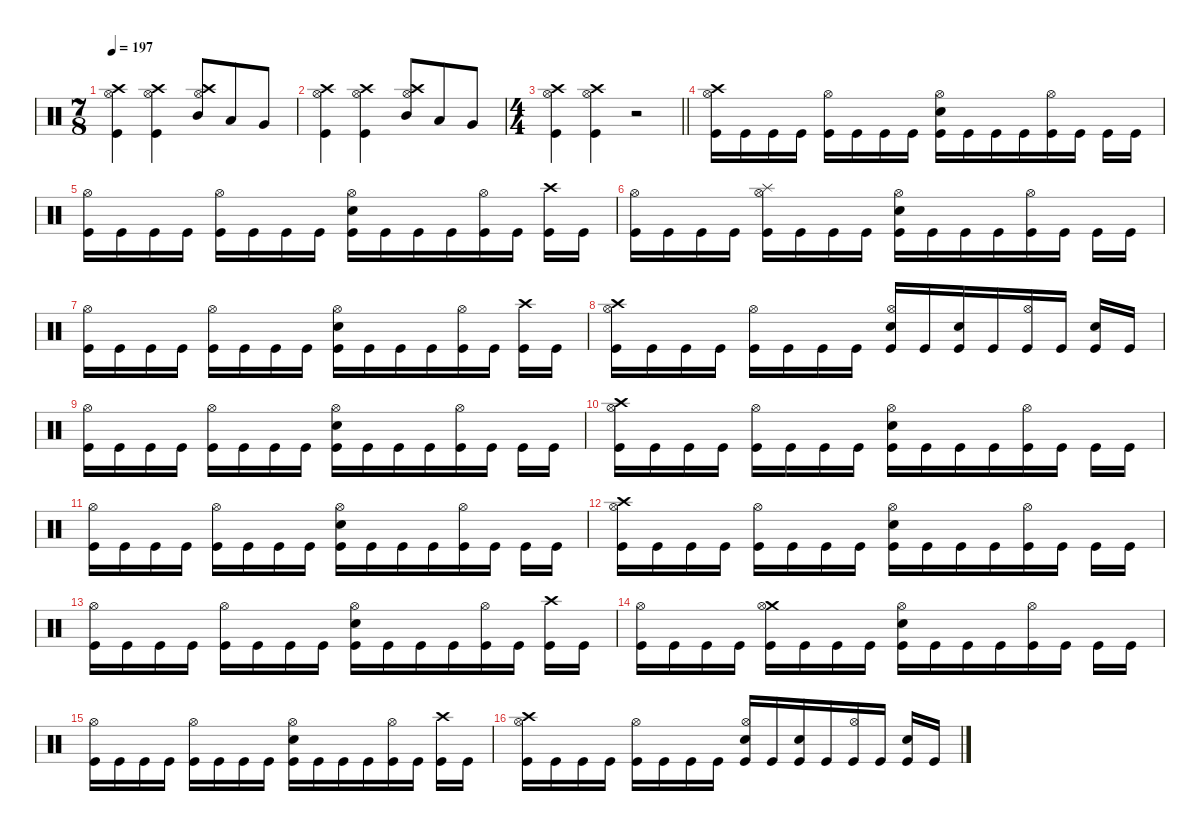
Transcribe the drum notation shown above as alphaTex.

\defaultSystemsLayout 4
\hideDynamics
\bracketExtendMode nobrackets
\singleTrackTrackNamePolicy hidden
\multiTrackTrackNamePolicy hidden
\firstSystemTrackNameMode fullname
\firstSystemTrackNameOrientation horizontal
\otherSystemsTrackNameOrientation horizontal
\track ("Drums" "drm.") {defaultSystemsLayout 4 instrument percussion}
\staff {score}
\articulation defaults
\ts (7 8)
\tempo 197
\clef neutral
\ks c
("Crash high (hit)" "Hi-Hat (open)" "Kick (hit)").4{dy f beam Down} ("Crash high (hit)" "Hi-Hat (open)" "Kick (hit)").4{beam Down} ("Crash high (hit)" "Hi-Hat (open)" "Mid Tom (hit)").8{beam Up} "Low Tom (hit)".8{beam Up} "Very Low Tom (hit)".8{beam Up} |
("Crash high (hit)" "Hi-Hat (open)" "Kick (hit)").4{beam Down} ("Crash high (hit)" "Hi-Hat (open)" "Kick (hit)").4{beam Down} ("Crash high (hit)" "Hi-Hat (open)" "Mid Tom (hit)").8{beam Up} "Low Tom (hit)".8{beam Up} "Very Low Tom (hit)".8{beam Up} |
\ts (4 4)
\beaming (8 2 2 3)
\barLineRight lightlight
("Crash high (hit)" "Hi-Hat (open)" "Kick (hit)").4{beam Down} ("Crash high (hit)" "Hi-Hat (open)" "Kick (hit)").4{beam Down} r.2{beam Down} |
("Crash high (hit)" "Hi-Hat (open)" "Kick (hit)").16{beam Down} "Kick (hit)".16{beam Down} "Kick (hit)".16{beam Down} "Kick (hit)".16{beam Down} ("Hi-Hat (open)" "Kick (hit)").16{beam Down} "Kick (hit)".16{beam Down} "Kick (hit)".16{beam Down} "Kick (hit)".16{beam Down} ("Hi-Hat (open)" "Snare (hit) 2" "Kick (hit)").16{beam Down} "Kick (hit)".16{beam Down} "Kick (hit)".16{beam Down} "Kick (hit)".16{beam Down} ("Hi-Hat (open)" "Kick (hit)").16{beam Down} "Kick (hit)".16{beam Down} "Kick (hit)".16{beam Down} "Kick (hit)".16{beam Down} |
("Hi-Hat (open)" "Kick (hit)").16{beam Down} "Kick (hit)".16{beam Down} "Kick (hit)".16{beam Down} "Kick (hit)".16{beam Down} ("Hi-Hat (open)" "Kick (hit)").16{beam Down} "Kick (hit)".16{beam Down} "Kick (hit)".16{beam Down} "Kick (hit)".16{beam Down} ("Hi-Hat (open)" "Snare (hit) 2" "Kick (hit)").16{beam Down} "Kick (hit)".16{beam Down} "Kick (hit)".16{beam Down} "Kick (hit)".16{beam Down} ("Hi-Hat (open)" "Kick (hit)").16{beam Down} "Kick (hit)".16{beam Down} ("Crash high (hit)" "Kick (hit)").16{beam Down} "Kick (hit)".16{beam Down} |
("Hi-Hat (open)" "Kick (hit)").16{beam Down} "Kick (hit)".16{beam Down} "Kick (hit)".16{beam Down} "Kick (hit)".16{beam Down} ("Splash (hit)" "Hi-Hat (open)" "Kick (hit)").16{beam Down} "Kick (hit)".16{beam Down} "Kick (hit)".16{beam Down} "Kick (hit)".16{beam Down} ("Hi-Hat (open)" "Snare (hit) 2" "Kick (hit)").16{beam Down} "Kick (hit)".16{beam Down} "Kick (hit)".16{beam Down} "Kick (hit)".16{beam Down} ("Hi-Hat (open)" "Kick (hit)").16{beam Down} "Kick (hit)".16{beam Down} "Kick (hit)".16{beam Down} "Kick (hit)".16{beam Down} |
("Hi-Hat (open)" "Kick (hit)").16{beam Down} "Kick (hit)".16{beam Down} "Kick (hit)".16{beam Down} "Kick (hit)".16{beam Down} ("Hi-Hat (open)" "Kick (hit)").16{beam Down} "Kick (hit)".16{beam Down} "Kick (hit)".16{beam Down} "Kick (hit)".16{beam Down} ("Hi-Hat (open)" "Snare (hit) 2" "Kick (hit)").16{beam Down} "Kick (hit)".16{beam Down} "Kick (hit)".16{beam Down} "Kick (hit)".16{beam Down} ("Hi-Hat (open)" "Kick (hit)").16{beam Down} "Kick (hit)".16{beam Down} ("Crash high (hit)" "Kick (hit)").16{beam Down} "Kick (hit)".16{beam Down} |
("Crash high (hit)" "Hi-Hat (open)" "Kick (hit)").16{beam Down} "Kick (hit)".16{beam Down} "Kick (hit)".16{beam Down} "Kick (hit)".16{beam Down} ("Hi-Hat (open)" "Kick (hit)").16{beam Down} "Kick (hit)".16{beam Down} "Kick (hit)".16{beam Down} "Kick (hit)".16{beam Down} ("Hi-Hat (open)" "Snare (hit) 2" "Kick (hit)").16{beam Up} "Kick (hit)".16{beam Up} ("Snare (hit) 2" "Kick (hit)").16{beam Up} "Kick (hit)".16{beam Up} ("Hi-Hat (open)" "Kick (hit)").16{beam Up} "Kick (hit)".16{beam Up} ("Snare (hit) 2" "Kick (hit)").16{beam Up} "Kick (hit)".16{beam Up} |
("Hi-Hat (open)" "Kick (hit)").16{beam Down} "Kick (hit)".16{beam Down} "Kick (hit)".16{beam Down} "Kick (hit)".16{beam Down} ("Hi-Hat (open)" "Kick (hit)").16{beam Down} "Kick (hit)".16{beam Down} "Kick (hit)".16{beam Down} "Kick (hit)".16{beam Down} ("Hi-Hat (open)" "Snare (hit) 2" "Kick (hit)").16{beam Down} "Kick (hit)".16{beam Down} "Kick (hit)".16{beam Down} "Kick (hit)".16{beam Down} ("Hi-Hat (open)" "Kick (hit)").16{beam Down} "Kick (hit)".16{beam Down} "Kick (hit)".16{beam Down} "Kick (hit)".16{beam Down} |
("Crash high (hit)" "Hi-Hat (open)" "Kick (hit)").16{beam Down} "Kick (hit)".16{beam Down} "Kick (hit)".16{beam Down} "Kick (hit)".16{beam Down} ("Hi-Hat (open)" "Kick (hit)").16{beam Down} "Kick (hit)".16{beam Down} "Kick (hit)".16{beam Down} "Kick (hit)".16{beam Down} ("Hi-Hat (open)" "Snare (hit) 2" "Kick (hit)").16{beam Down} "Kick (hit)".16{beam Down} "Kick (hit)".16{beam Down} "Kick (hit)".16{beam Down} ("Hi-Hat (open)" "Kick (hit)").16{beam Down} "Kick (hit)".16{beam Down} "Kick (hit)".16{beam Down} "Kick (hit)".16{beam Down} |
("Hi-Hat (open)" "Kick (hit)").16{beam Down} "Kick (hit)".16{beam Down} "Kick (hit)".16{beam Down} "Kick (hit)".16{beam Down} ("Hi-Hat (open)" "Kick (hit)").16{beam Down} "Kick (hit)".16{beam Down} "Kick (hit)".16{beam Down} "Kick (hit)".16{beam Down} ("Hi-Hat (open)" "Snare (hit) 2" "Kick (hit)").16{beam Down} "Kick (hit)".16{beam Down} "Kick (hit)".16{beam Down} "Kick (hit)".16{beam Down} ("Hi-Hat (open)" "Kick (hit)").16{beam Down} "Kick (hit)".16{beam Down} "Kick (hit)".16{beam Down} "Kick (hit)".16{beam Down} |
("Crash high (hit)" "Hi-Hat (open)" "Kick (hit)").16{beam Down} "Kick (hit)".16{beam Down} "Kick (hit)".16{beam Down} "Kick (hit)".16{beam Down} ("Hi-Hat (open)" "Kick (hit)").16{beam Down} "Kick (hit)".16{beam Down} "Kick (hit)".16{beam Down} "Kick (hit)".16{beam Down} ("Hi-Hat (open)" "Snare (hit) 2" "Kick (hit)").16{beam Down} "Kick (hit)".16{beam Down} "Kick (hit)".16{beam Down} "Kick (hit)".16{beam Down} ("Hi-Hat (open)" "Kick (hit)").16{beam Down} "Kick (hit)".16{beam Down} "Kick (hit)".16{beam Down} "Kick (hit)".16{beam Down} |
("Hi-Hat (open)" "Kick (hit)").16{beam Down} "Kick (hit)".16{beam Down} "Kick (hit)".16{beam Down} "Kick (hit)".16{beam Down} ("Hi-Hat (open)" "Kick (hit)").16{beam Down} "Kick (hit)".16{beam Down} "Kick (hit)".16{beam Down} "Kick (hit)".16{beam Down} ("Hi-Hat (open)" "Snare (hit) 2" "Kick (hit)").16{beam Down} "Kick (hit)".16{beam Down} "Kick (hit)".16{beam Down} "Kick (hit)".16{beam Down} ("Hi-Hat (open)" "Kick (hit)").16{beam Down} "Kick (hit)".16{beam Down} ("Crash high (hit)" "Kick (hit)").16{beam Down} "Kick (hit)".16{beam Down} |
("Hi-Hat (open)" "Kick (hit)").16{beam Down} "Kick (hit)".16{beam Down} "Kick (hit)".16{beam Down} "Kick (hit)".16{beam Down} ("Crash medium (hit)" "Hi-Hat (open)" "Kick (hit)").16{beam Down} "Kick (hit)".16{beam Down} "Kick (hit)".16{beam Down} "Kick (hit)".16{beam Down} ("Hi-Hat (open)" "Snare (hit) 2" "Kick (hit)").16{beam Down} "Kick (hit)".16{beam Down} "Kick (hit)".16{beam Down} "Kick (hit)".16{beam Down} ("Hi-Hat (open)" "Kick (hit)").16{beam Down} "Kick (hit)".16{beam Down} "Kick (hit)".16{beam Down} "Kick (hit)".16{beam Down} |
("Hi-Hat (open)" "Kick (hit)").16{beam Down} "Kick (hit)".16{beam Down} "Kick (hit)".16{beam Down} "Kick (hit)".16{beam Down} ("Hi-Hat (open)" "Kick (hit)").16{beam Down} "Kick (hit)".16{beam Down} "Kick (hit)".16{beam Down} "Kick (hit)".16{beam Down} ("Hi-Hat (open)" "Snare (hit) 2" "Kick (hit)").16{beam Down} "Kick (hit)".16{beam Down} "Kick (hit)".16{beam Down} "Kick (hit)".16{beam Down} ("Hi-Hat (open)" "Kick (hit)").16{beam Down} "Kick (hit)".16{beam Down} ("Crash high (hit)" "Kick (hit)").16{beam Down} "Kick (hit)".16{beam Down} |
("Crash high (hit)" "Hi-Hat (open)" "Kick (hit)").16{beam Down} "Kick (hit)".16{beam Down} "Kick (hit)".16{beam Down} "Kick (hit)".16{beam Down} ("Hi-Hat (open)" "Kick (hit)").16{beam Down} "Kick (hit)".16{beam Down} "Kick (hit)".16{beam Down} "Kick (hit)".16{beam Down} ("Hi-Hat (open)" "Snare (hit) 2" "Kick (hit)").16{beam Up} "Kick (hit)".16{beam Up} ("Snare (hit) 2" "Kick (hit)").16{beam Up} "Kick (hit)".16{beam Up} ("Hi-Hat (open)" "Kick (hit)").16{beam Up} "Kick (hit)".16{beam Up} ("Snare (hit) 2" "Kick (hit)").16{beam Up} "Kick (hit)".16{beam Up}
